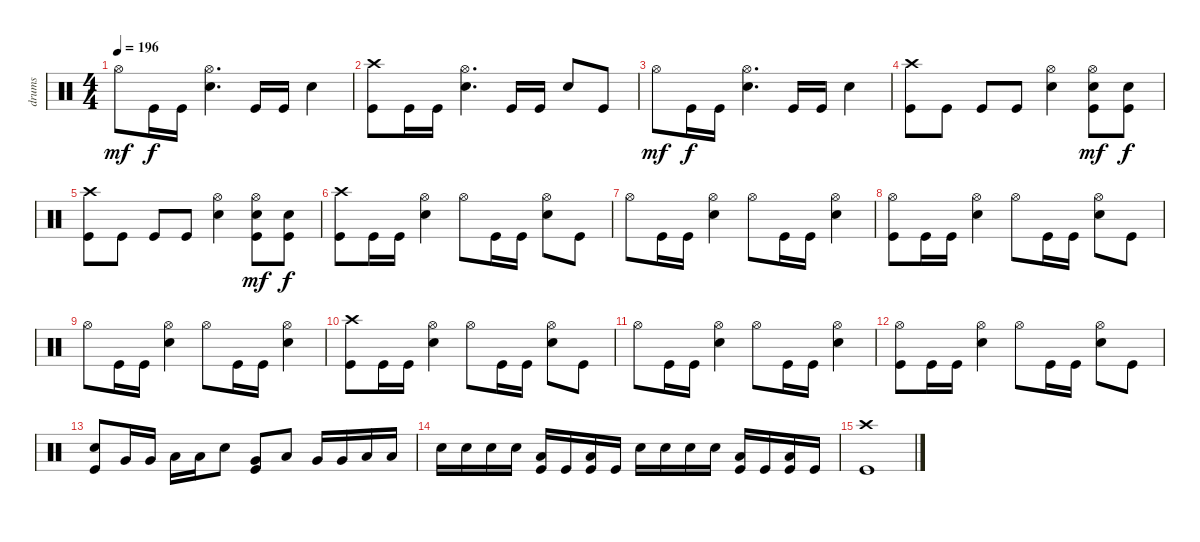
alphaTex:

\track ("drums" "drums") {instrument percussion}
\staff {score}
\articulation defaults
\ts (4 4)
\tempo 196
\clef neutral
\ks c "Hi-Hat (open)".8{dy mf} "Kick (hit)".16{dy f} "Kick (hit)".16
("Hi-Hat (open)" "Electric Snare (hit)").4{d} "Kick (hit)".16 "Kick (hit)".16 "Electric Snare (hit)".4 |
("Crash high (hit)" "Kick (hit)").8 "Kick (hit)".16 "Kick (hit)".16 ("Hi-Hat (open)" "Electric Snare (hit)").4{d} "Kick (hit)".16 "Kick (hit)".16 "Electric Snare (hit)".8 "Kick (hit)".8 |
"Hi-Hat (open)".8{dy mf} "Kick (hit)".16{dy f} "Kick (hit)".16 ("Hi-Hat (open)" "Electric Snare (hit)").4{d} "Kick (hit)".16 "Kick (hit)".16 "Electric Snare (hit)".4 |
("Crash high (hit)" "Kick (hit)").8 "Kick (hit)".8 "Kick (hit)".8 "Kick (hit)".8 ("Hi-Hat (open)" "Electric Snare (hit)").4 ("Hi-Hat (open)" "Electric Snare (hit)" "Kick (hit)").8{dy mf} ("Electric Snare (hit)" "Kick (hit)").8{dy f} |
("Crash high (hit)" "Kick (hit)").8 "Kick (hit)".8 "Kick (hit)".8 "Kick (hit)".8 ("Hi-Hat (open)" "Electric Snare (hit)").4 ("Hi-Hat (open)" "Electric Snare (hit)" "Kick (hit)").8{dy mf} ("Electric Snare (hit)" "Kick (hit)").8{dy f} |
("Crash high (hit)" "Kick (hit)").8 "Kick (hit)".16 "Kick (hit)".16 ("Hi-Hat (open)" "Electric Snare (hit)").4 "Hi-Hat (open)".8 "Kick (hit)".16 "Kick (hit)".16 ("Hi-Hat (open)" "Electric Snare (hit)").8 "Kick (hit)".8 |
"Hi-Hat (open)".8 "Kick (hit)".16 "Kick (hit)".16 ("Hi-Hat (open)" "Electric Snare (hit)").4 "Hi-Hat (open)".8 "Kick (hit)".16 "Kick (hit)".16 ("Hi-Hat (open)" "Electric Snare (hit)").4 |
("Hi-Hat (open)" "Kick (hit)").8 "Kick (hit)".16 "Kick (hit)".16 ("Hi-Hat (open)" "Electric Snare (hit)").4 "Hi-Hat (open)".8 "Kick (hit)".16 "Kick (hit)".16 ("Hi-Hat (open)" "Electric Snare (hit)").8 "Kick (hit)".8 |
"Hi-Hat (open)".8 "Kick (hit)".16 "Kick (hit)".16 ("Hi-Hat (open)" "Electric Snare (hit)").4 "Hi-Hat (open)".8 "Kick (hit)".16 "Kick (hit)".16 ("Hi-Hat (open)" "Electric Snare (hit)").4 |
("Crash high (hit)" "Kick (hit)").8 "Kick (hit)".16 "Kick (hit)".16 ("Hi-Hat (open)" "Electric Snare (hit)").4 "Hi-Hat (open)".8 "Kick (hit)".16 "Kick (hit)".16 ("Hi-Hat (open)" "Electric Snare (hit)").8 "Kick (hit)".8 |
"Hi-Hat (open)".8 "Kick (hit)".16 "Kick (hit)".16 ("Hi-Hat (open)" "Electric Snare (hit)").4 "Hi-Hat (open)".8 "Kick (hit)".16 "Kick (hit)".16 ("Hi-Hat (open)" "Electric Snare (hit)").4 |
("Hi-Hat (open)" "Kick (hit)").8 "Kick (hit)".16 "Kick (hit)".16 ("Hi-Hat (open)" "Electric Snare (hit)").4 "Hi-Hat (open)".8 "Kick (hit)".16 "Kick (hit)".16 ("Hi-Hat (open)" "Electric Snare (hit)").8 "Kick (hit)".8 |
("Electric Snare (hit)" "Kick (hit)").8 "Very Low Tom (hit)".16 "Very Low Tom (hit)".16 "Low Floor Tom (hit)".16 "Low Floor Tom (hit)".16 "Electric Snare (hit)".8 ("Very Low Tom (hit)" "Kick (hit)").8 "Low Floor Tom (hit)".8 "Very Low Tom (hit)".16 "Very Low Tom (hit)".16 "Low Floor Tom (hit)".16 "Low Floor Tom (hit)".16 |
"Electric Snare (hit)".16 "Electric Snare (hit)".16 "Electric Snare (hit)".16 "Electric Snare (hit)".16 ("Low Floor Tom (hit)" "Kick (hit)").16 "Kick (hit)".16 ("Low Floor Tom (hit)" "Kick (hit)").16 "Kick (hit)".16 "Electric Snare (hit)".16 "Electric Snare (hit)".16 "Electric Snare (hit)".16 "Electric Snare (hit)".16 ("Low Floor Tom (hit)" "Kick (hit)").16 "Kick (hit)".16 ("Low Floor Tom (hit)" "Kick (hit)").16 "Kick (hit)".16 |
("Crash high (hit)" "Kick (hit)").1
